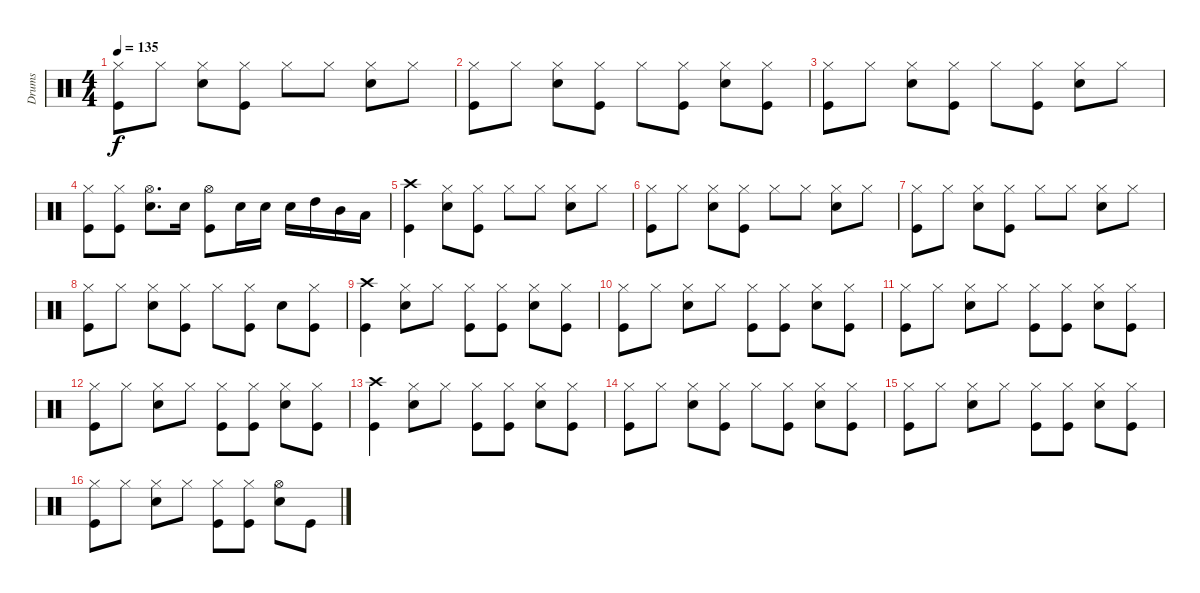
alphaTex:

\track ("Drums" "Drums") {instrument percussion}
\staff {score}
\articulation defaults
\ts (4 4)
\tempo 135
\clef neutral
\ks c
("Kick (hit)" "Hi-Hat (closed)").8{dy f} "Hi-Hat (closed)".8 ("Electric Snare (hit)" "Hi-Hat (closed)").8 ("Kick (hit)" "Hi-Hat (closed)").8 "Hi-Hat (closed)".8 "Hi-Hat (closed)".8 ("Electric Snare (hit)" "Hi-Hat (closed)").8 "Hi-Hat (closed)".8 |
("Kick (hit)" "Hi-Hat (closed)").8 "Hi-Hat (closed)".8 ("Electric Snare (hit)" "Hi-Hat (closed)").8 ("Kick (hit)" "Hi-Hat (closed)").8 "Hi-Hat (closed)".8 ("Kick (hit)" "Hi-Hat (closed)").8 ("Electric Snare (hit)" "Hi-Hat (closed)").8 ("Kick (hit)" "Hi-Hat (closed)").8 |
("Kick (hit)" "Hi-Hat (closed)").8 "Hi-Hat (closed)".8 ("Electric Snare (hit)" "Hi-Hat (closed)").8 ("Kick (hit)" "Hi-Hat (closed)").8 "Hi-Hat (closed)".8 ("Kick (hit)" "Hi-Hat (closed)").8 ("Electric Snare (hit)" "Hi-Hat (closed)").8 "Hi-Hat (closed)".8 |
("Kick (hit)" "Hi-Hat (closed)").8 ("Kick (hit)" "Hi-Hat (closed)").8 ("Electric Snare (hit)" "Hi-Hat (open)").8{d} "Electric Snare (hit)".16 ("Kick (hit)" "Hi-Hat (open)").8 "Electric Snare (hit)".16 "Electric Snare (hit)".16 "Electric Snare (hit)".16 "High Tom (hit)".16 "Mid Tom (hit)".16 "Low Tom (hit)".16 |
("Kick (hit)" "Crash high (hit)").4 ("Electric Snare (hit)" "Hi-Hat (closed)").8 ("Kick (hit)" "Hi-Hat (closed)").8 "Hi-Hat (closed)".8 "Hi-Hat (closed)".8 ("Electric Snare (hit)" "Hi-Hat (closed)").8 "Hi-Hat (closed)".8 |
("Kick (hit)" "Hi-Hat (closed)").8 "Hi-Hat (closed)".8 ("Electric Snare (hit)" "Hi-Hat (closed)").8 ("Kick (hit)" "Hi-Hat (closed)").8 "Hi-Hat (closed)".8 "Hi-Hat (closed)".8 ("Electric Snare (hit)" "Hi-Hat (closed)").8 "Hi-Hat (closed)".8 |
("Kick (hit)" "Hi-Hat (closed)").8 "Hi-Hat (closed)".8 ("Electric Snare (hit)" "Hi-Hat (closed)").8 ("Kick (hit)" "Hi-Hat (closed)").8 "Hi-Hat (closed)".8 "Hi-Hat (closed)".8 ("Electric Snare (hit)" "Hi-Hat (closed)").8 "Hi-Hat (closed)".8 |
("Kick (hit)" "Hi-Hat (closed)").8 "Hi-Hat (closed)".8 ("Electric Snare (hit)" "Hi-Hat (closed)").8 ("Kick (hit)" "Hi-Hat (closed)").8 "Hi-Hat (closed)".8 ("Kick (hit)" "Hi-Hat (closed)").8 "Electric Snare (hit)".8 ("Kick (hit)" "Hi-Hat (closed)").8 |
("Kick (hit)" "Crash high (hit)").4 ("Electric Snare (hit)" "Hi-Hat (closed)").8 "Hi-Hat (closed)".8 ("Kick (hit)" "Hi-Hat (closed)").8 ("Kick (hit)" "Hi-Hat (closed)").8 ("Electric Snare (hit)" "Hi-Hat (closed)").8 ("Kick (hit)" "Hi-Hat (closed)").8 |
("Kick (hit)" "Hi-Hat (closed)").8 "Hi-Hat (closed)".8 ("Electric Snare (hit)" "Hi-Hat (closed)").8 "Hi-Hat (closed)".8 ("Kick (hit)" "Hi-Hat (closed)").8 ("Kick (hit)" "Hi-Hat (closed)").8 ("Electric Snare (hit)" "Hi-Hat (closed)").8 ("Kick (hit)" "Hi-Hat (closed)").8 |
("Kick (hit)" "Hi-Hat (closed)").8 "Hi-Hat (closed)".8 ("Electric Snare (hit)" "Hi-Hat (closed)").8 "Hi-Hat (closed)".8 ("Kick (hit)" "Hi-Hat (closed)").8 ("Kick (hit)" "Hi-Hat (closed)").8 ("Electric Snare (hit)" "Hi-Hat (closed)").8 ("Kick (hit)" "Hi-Hat (closed)").8 |
("Kick (hit)" "Hi-Hat (closed)").8 "Hi-Hat (closed)".8 ("Electric Snare (hit)" "Hi-Hat (closed)").8 "Hi-Hat (closed)".8 ("Kick (hit)" "Hi-Hat (closed)").8 ("Kick (hit)" "Hi-Hat (closed)").8 ("Electric Snare (hit)" "Hi-Hat (closed)").8 ("Kick (hit)" "Hi-Hat (closed)").8 |
("Kick (hit)" "Crash high (hit)").4 ("Electric Snare (hit)" "Hi-Hat (closed)").8 "Hi-Hat (closed)".8 ("Kick (hit)" "Hi-Hat (closed)").8 ("Kick (hit)" "Hi-Hat (closed)").8 ("Electric Snare (hit)" "Hi-Hat (closed)").8 ("Kick (hit)" "Hi-Hat (closed)").8 |
("Kick (hit)" "Hi-Hat (closed)").8 "Hi-Hat (closed)".8 ("Electric Snare (hit)" "Hi-Hat (closed)").8 ("Kick (hit)" "Hi-Hat (closed)").8 "Hi-Hat (closed)".8 ("Kick (hit)" "Hi-Hat (closed)").8 ("Electric Snare (hit)" "Hi-Hat (closed)").8 ("Kick (hit)" "Hi-Hat (closed)").8 |
("Kick (hit)" "Hi-Hat (closed)").8 "Hi-Hat (closed)".8 ("Electric Snare (hit)" "Hi-Hat (closed)").8 "Hi-Hat (closed)".8 ("Kick (hit)" "Hi-Hat (closed)").8 ("Kick (hit)" "Hi-Hat (closed)").8 ("Electric Snare (hit)" "Hi-Hat (closed)").8 ("Kick (hit)" "Hi-Hat (closed)").8 |
("Kick (hit)" "Hi-Hat (closed)").8 "Hi-Hat (closed)".8 ("Electric Snare (hit)" "Hi-Hat (closed)").8 "Hi-Hat (closed)".8 ("Kick (hit)" "Hi-Hat (closed)").8 ("Kick (hit)" "Hi-Hat (closed)").8 ("Electric Snare (hit)" "Hi-Hat (open)").8 "Kick (hit)".8
